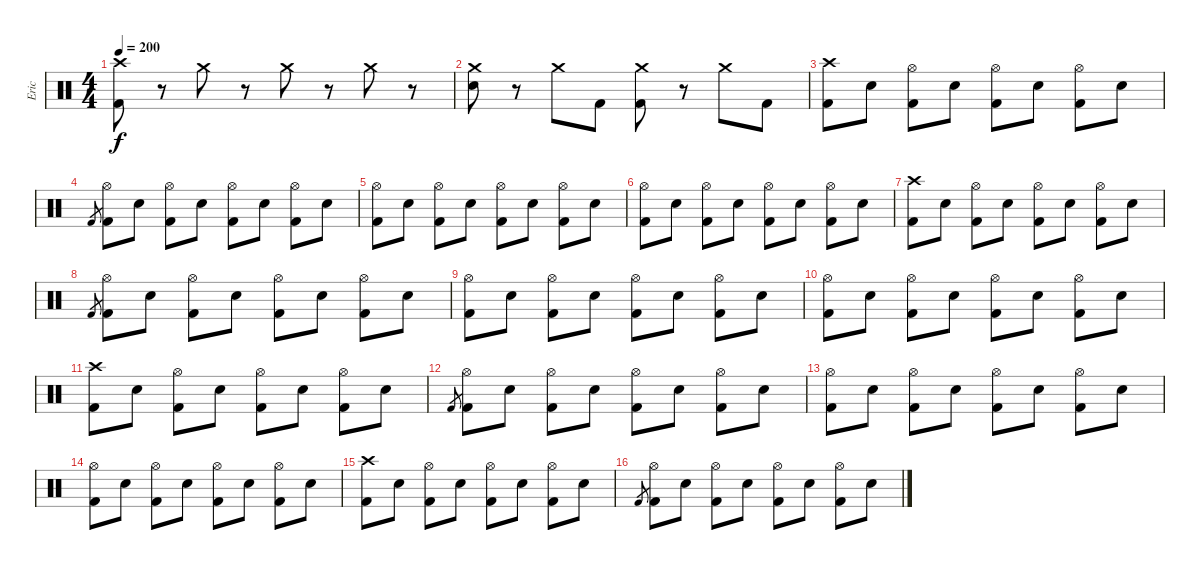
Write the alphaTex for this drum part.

\track ("Eric" "Eric") {instrument percussion}
\staff {score}
\articulation defaults
\ts (4 4)
\tempo 200
\clef neutral
\ks c
("Crash high (hit)" "Kick (hit) 2").8{dy f} r.8 "Crash medium (hit)".8 r.8 "Crash medium (hit)".8 r.8 "Crash medium (hit)".8 r.8 |
("Crash medium (hit)" "Electric Snare (hit)").8 r.8 "Crash medium (hit)".8 "Kick (hit) 2".8 ("Crash medium (hit)" "Kick (hit) 2").8 r.8 "Crash medium (hit)".8 "Kick (hit) 2".8 |
("Crash high (hit)" "Kick (hit) 2").8 "Electric Snare (hit)".8 ("Hi-Hat (open)" "Kick (hit) 2").8 "Electric Snare (hit)".8 ("Hi-Hat (open)" "Kick (hit) 2").8 "Electric Snare (hit)".8 ("Hi-Hat (open)" "Kick (hit) 2").8 "Electric Snare (hit)".8 |
"Kick (hit) 2".8{gr} ("Hi-Hat (open)" "Kick (hit) 2").8 "Electric Snare (hit)".8 ("Hi-Hat (open)" "Kick (hit) 2").8 "Electric Snare (hit)".8 ("Hi-Hat (open)" "Kick (hit) 2").8 "Electric Snare (hit)".8 ("Hi-Hat (open)" "Kick (hit) 2").8 "Electric Snare (hit)".8 |
("Hi-Hat (open)" "Kick (hit) 2").8 "Electric Snare (hit)".8 ("Hi-Hat (open)" "Kick (hit) 2").8 "Electric Snare (hit)".8 ("Hi-Hat (open)" "Kick (hit) 2").8 "Electric Snare (hit)".8 ("Hi-Hat (open)" "Kick (hit) 2").8 "Electric Snare (hit)".8 |
("Hi-Hat (open)" "Kick (hit) 2").8 "Electric Snare (hit)".8 ("Hi-Hat (open)" "Kick (hit) 2").8 "Electric Snare (hit)".8 ("Hi-Hat (open)" "Kick (hit) 2").8 "Electric Snare (hit)".8 ("Hi-Hat (open)" "Kick (hit) 2").8 "Electric Snare (hit)".8 |
("Crash high (hit)" "Kick (hit) 2").8 "Electric Snare (hit)".8 ("Hi-Hat (open)" "Kick (hit) 2").8 "Electric Snare (hit)".8 ("Hi-Hat (open)" "Kick (hit) 2").8 "Electric Snare (hit)".8 ("Hi-Hat (open)" "Kick (hit) 2").8 "Electric Snare (hit)".8 |
"Kick (hit) 2".8{gr} ("Hi-Hat (open)" "Kick (hit) 2").8 "Electric Snare (hit)".8 ("Hi-Hat (open)" "Kick (hit) 2").8 "Electric Snare (hit)".8 ("Hi-Hat (open)" "Kick (hit) 2").8 "Electric Snare (hit)".8 ("Hi-Hat (open)" "Kick (hit) 2").8 "Electric Snare (hit)".8 |
("Hi-Hat (open)" "Kick (hit) 2").8 "Electric Snare (hit)".8 ("Hi-Hat (open)" "Kick (hit) 2").8 "Electric Snare (hit)".8 ("Hi-Hat (open)" "Kick (hit) 2").8 "Electric Snare (hit)".8 ("Hi-Hat (open)" "Kick (hit) 2").8 "Electric Snare (hit)".8 |
("Hi-Hat (open)" "Kick (hit) 2").8 "Electric Snare (hit)".8 ("Hi-Hat (open)" "Kick (hit) 2").8 "Electric Snare (hit)".8 ("Hi-Hat (open)" "Kick (hit) 2").8 "Electric Snare (hit)".8 ("Hi-Hat (open)" "Kick (hit) 2").8 "Electric Snare (hit)".8 |
("Crash high (hit)" "Kick (hit) 2").8 "Electric Snare (hit)".8 ("Hi-Hat (open)" "Kick (hit) 2").8 "Electric Snare (hit)".8 ("Hi-Hat (open)" "Kick (hit) 2").8 "Electric Snare (hit)".8 ("Hi-Hat (open)" "Kick (hit) 2").8 "Electric Snare (hit)".8 |
"Kick (hit) 2".8{gr} ("Hi-Hat (open)" "Kick (hit) 2").8 "Electric Snare (hit)".8 ("Hi-Hat (open)" "Kick (hit) 2").8 "Electric Snare (hit)".8 ("Hi-Hat (open)" "Kick (hit) 2").8 "Electric Snare (hit)".8 ("Hi-Hat (open)" "Kick (hit) 2").8 "Electric Snare (hit)".8 |
("Hi-Hat (open)" "Kick (hit) 2").8 "Electric Snare (hit)".8 ("Hi-Hat (open)" "Kick (hit) 2").8 "Electric Snare (hit)".8 ("Hi-Hat (open)" "Kick (hit) 2").8 "Electric Snare (hit)".8 ("Hi-Hat (open)" "Kick (hit) 2").8 "Electric Snare (hit)".8 |
("Hi-Hat (open)" "Kick (hit) 2").8 "Electric Snare (hit)".8 ("Hi-Hat (open)" "Kick (hit) 2").8 "Electric Snare (hit)".8 ("Hi-Hat (open)" "Kick (hit) 2").8 "Electric Snare (hit)".8 ("Hi-Hat (open)" "Kick (hit) 2").8 "Electric Snare (hit)".8 |
("Crash high (hit)" "Kick (hit) 2").8 "Electric Snare (hit)".8 ("Hi-Hat (open)" "Kick (hit) 2").8 "Electric Snare (hit)".8 ("Hi-Hat (open)" "Kick (hit) 2").8 "Electric Snare (hit)".8 ("Hi-Hat (open)" "Kick (hit) 2").8 "Electric Snare (hit)".8 |
"Kick (hit) 2".8{gr} ("Hi-Hat (open)" "Kick (hit) 2").8 "Electric Snare (hit)".8 ("Hi-Hat (open)" "Kick (hit) 2").8 "Electric Snare (hit)".8 ("Hi-Hat (open)" "Kick (hit) 2").8 "Electric Snare (hit)".8 ("Hi-Hat (open)" "Kick (hit) 2").8 "Electric Snare (hit)".8
